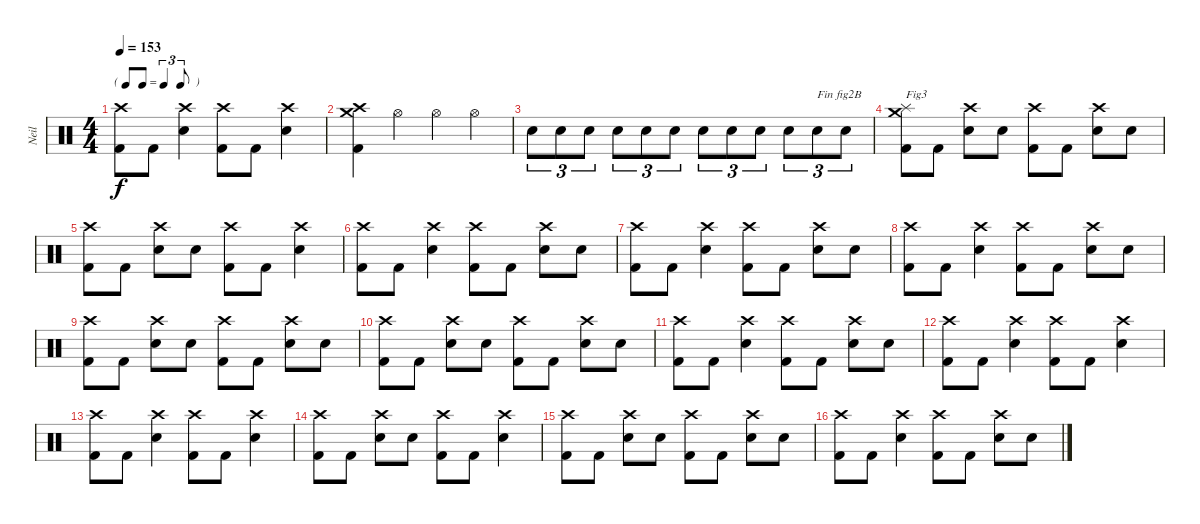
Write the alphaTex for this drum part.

\track ("Neil" "Neil") {instrument percussion}
\staff {score}
\articulation defaults
\ts (4 4)
\tf triplet8th
\tempo 153
\clef neutral
\ks c
("Kick (hit) 2" "Crash high (hit)").8{dy f} "Kick (hit) 2".8 ("Electric Snare (hit)" "Crash high (hit)").4 ("Kick (hit) 2" "Crash high (hit)").8 "Kick (hit) 2".8 ("Electric Snare (hit)" "Crash high (hit)").4 |
("Kick (hit) 2" "Crash medium (hit)" "Crash high (hit)").4 "Hi-Hat (open)".4 "Hi-Hat (open)".4 "Hi-Hat (open)".4 |
"Electric Snare (hit)".8{tu (3 2)} "Electric Snare (hit)".8{tu (3 2)} "Electric Snare (hit)".8{tu (3 2)} "Electric Snare (hit)".8{tu (3 2)} "Electric Snare (hit)".8{tu (3 2)} "Electric Snare (hit)".8{tu (3 2)} "Electric Snare (hit)".8{tu (3 2)} "Electric Snare (hit)".8{tu (3 2)} "Electric Snare (hit)".8{tu (3 2)} "Electric Snare (hit)".8{tu (3 2)} "Electric Snare (hit)".8{tu (3 2) txt "Fin fig2B"} "Electric Snare (hit)".8{tu (3 2)} |
("Kick (hit) 2" "Crash medium (hit)" "Splash (hit)").8{txt "Fig3"} "Kick (hit) 2".8 ("Electric Snare (hit)" "Crash high (hit)").8 "Electric Snare (hit)".8 ("Kick (hit) 2" "Crash high (hit)").8 "Kick (hit) 2".8 ("Electric Snare (hit)" "Crash high (hit)").8 "Electric Snare (hit)".8 |
("Kick (hit) 2" "Crash high (hit)").8 "Kick (hit) 2".8 ("Electric Snare (hit)" "Crash high (hit)").8 "Electric Snare (hit)".8 ("Kick (hit) 2" "Crash high (hit)").8 "Kick (hit) 2".8 ("Electric Snare (hit)" "Crash high (hit)").4 |
("Kick (hit) 2" "Crash high (hit)").8 "Kick (hit) 2".8 ("Electric Snare (hit)" "Crash high (hit)").4 ("Kick (hit) 2" "Crash high (hit)").8 "Kick (hit) 2".8 ("Electric Snare (hit)" "Crash high (hit)").8 "Electric Snare (hit)".8 |
("Kick (hit) 2" "Crash high (hit)").8 "Kick (hit) 2".8 ("Electric Snare (hit)" "Crash high (hit)").4 ("Kick (hit) 2" "Crash high (hit)").8 "Kick (hit) 2".8 ("Electric Snare (hit)" "Crash high (hit)").8 "Electric Snare (hit)".8 |
("Kick (hit) 2" "Crash high (hit)").8 "Kick (hit) 2".8 ("Electric Snare (hit)" "Crash high (hit)").4 ("Kick (hit) 2" "Crash high (hit)").8 "Kick (hit) 2".8 ("Electric Snare (hit)" "Crash high (hit)").8 "Electric Snare (hit)".8 |
("Kick (hit) 2" "Crash high (hit)").8 "Kick (hit) 2".8 ("Electric Snare (hit)" "Crash high (hit)").8 "Electric Snare (hit)".8 ("Kick (hit) 2" "Crash high (hit)").8 "Kick (hit) 2".8 ("Electric Snare (hit)" "Crash high (hit)").8 "Electric Snare (hit)".8 |
("Kick (hit) 2" "Crash high (hit)").8 "Kick (hit) 2".8 ("Electric Snare (hit)" "Crash high (hit)").8 "Electric Snare (hit)".8 ("Kick (hit) 2" "Crash high (hit)").8 "Kick (hit) 2".8 ("Electric Snare (hit)" "Crash high (hit)").8 "Electric Snare (hit)".8 |
("Kick (hit) 2" "Crash high (hit)").8 "Kick (hit) 2".8 ("Electric Snare (hit)" "Crash high (hit)").4 ("Kick (hit) 2" "Crash high (hit)").8 "Kick (hit) 2".8 ("Electric Snare (hit)" "Crash high (hit)").8 "Electric Snare (hit)".8 |
("Kick (hit) 2" "Crash high (hit)").8 "Kick (hit) 2".8 ("Electric Snare (hit)" "Crash high (hit)").4 ("Kick (hit) 2" "Crash high (hit)").8 "Kick (hit) 2".8 ("Electric Snare (hit)" "Crash high (hit)").4 |
("Kick (hit) 2" "Crash high (hit)").8 "Kick (hit) 2".8 ("Electric Snare (hit)" "Crash high (hit)").4 ("Kick (hit) 2" "Crash high (hit)").8 "Kick (hit) 2".8 ("Electric Snare (hit)" "Crash high (hit)").4 |
("Kick (hit) 2" "Crash high (hit)").8 "Kick (hit) 2".8 ("Electric Snare (hit)" "Crash high (hit)").8 "Electric Snare (hit)".8 ("Kick (hit) 2" "Crash high (hit)").8 "Kick (hit) 2".8 ("Electric Snare (hit)" "Crash high (hit)").4 |
("Kick (hit) 2" "Crash high (hit)").8 "Kick (hit) 2".8 ("Electric Snare (hit)" "Crash high (hit)").8 "Electric Snare (hit)".8 ("Kick (hit) 2" "Crash high (hit)").8 "Kick (hit) 2".8 ("Electric Snare (hit)" "Crash high (hit)").8 "Electric Snare (hit)".8 |
("Kick (hit) 2" "Crash high (hit)").8 "Kick (hit) 2".8 ("Electric Snare (hit)" "Crash high (hit)").4 ("Kick (hit) 2" "Crash high (hit)").8 "Kick (hit) 2".8 ("Electric Snare (hit)" "Crash high (hit)").8 "Electric Snare (hit)".8
